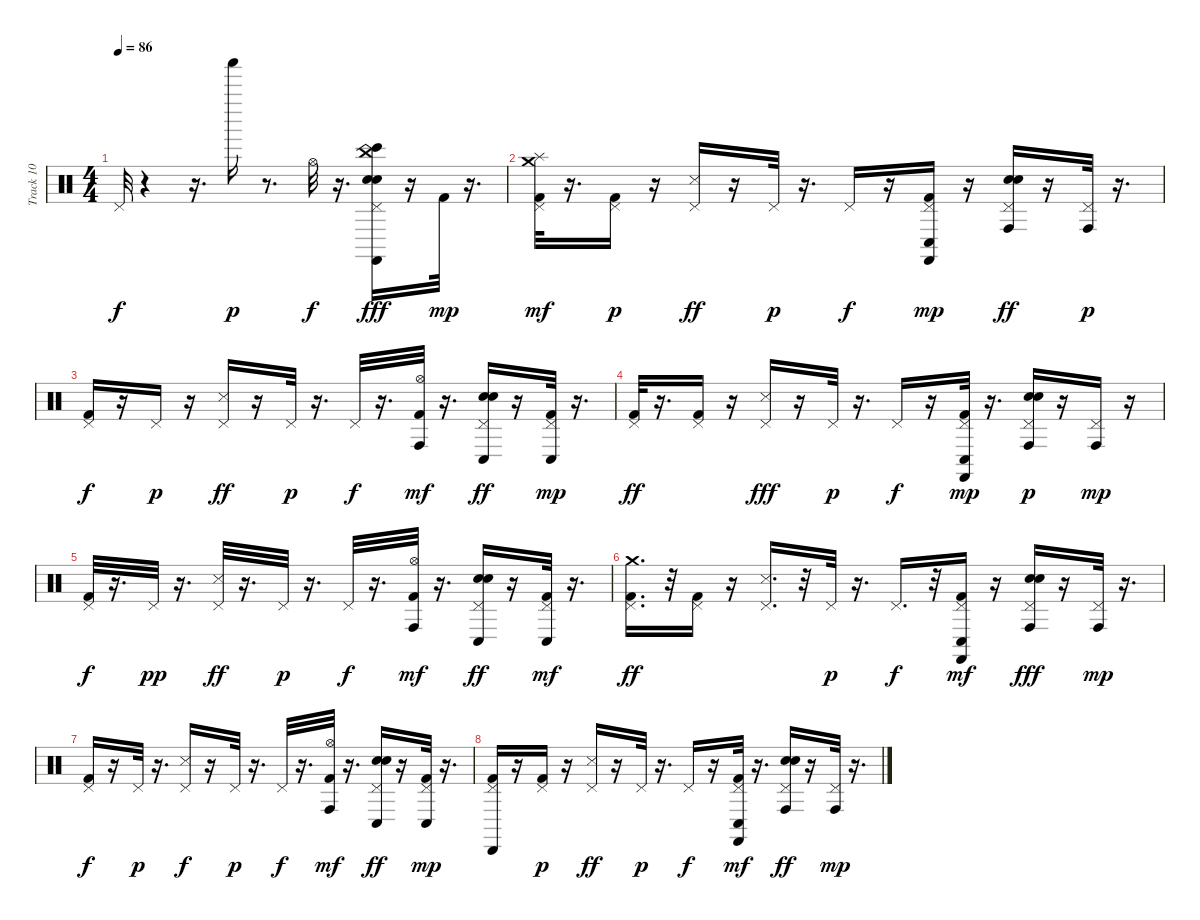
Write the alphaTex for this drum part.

\track ("Track 10" "Track 10") {instrument percussion}
\staff {score}
\articulation defaults
\ts (4 4)
\tempo 86
\clef neutral
\ks c "Pedal Hi-Hat (hit)".32{dy f}
r.4 r.16{d} "Shaker (hit)".16{dy p} r.8{d} "Hi-Hat (open)".32{dy f} r.16{d} ("Pedal Hi-Hat (hit)" "China (hit)" "Hand Clap (hit)" "Castanets (hit)" "Snare (hit)" "Bongo High (hit)").16{dy fff} r.16 "Kick (hit) 2".32{dy mp} r.16{d} |
("Pedal Hi-Hat (hit)" "Crash medium (hit)" "Splash (hit)" "Kick (hit) 2").32{dy mf} r.16{d} ("Pedal Hi-Hat (hit)" "Kick (hit) 2").16{dy p} r.16 ("Pedal Hi-Hat (hit)" "Snare (side stick) 3").16{dy ff} r.16 "Pedal Hi-Hat (hit)".32{dy p} r.16{d} "Pedal Hi-Hat (hit)".16{dy f} r.16 ("Pedal Hi-Hat (hit)" "Castanets (hit)" "Conga low (hit)" "Kick (hit) 2").16{dy mp} r.16 ("Pedal Hi-Hat (hit)" "Snare (hit)" "Conga high (hit)" "Electric Snare (hit)").16{dy ff} r.16 ("Pedal Hi-Hat (hit)" "Conga high (hit)").32{dy p} r.16{d} |
("Pedal Hi-Hat (hit)" "Kick (hit) 2").16{dy f} r.16 "Pedal Hi-Hat (hit)".16{dy p} r.16 ("Pedal Hi-Hat (hit)" "Snare (side stick) 3").16{dy ff} r.16 "Pedal Hi-Hat (hit)".32{dy p} r.16{d} "Pedal Hi-Hat (hit)".32{dy f} r.16{d} ("Hi-Hat (open)" "Conga high (hit)" "Kick (hit) 2").32{dy mf} r.16{d} ("Pedal Hi-Hat (hit)" "Snare (hit)" "Conga low (hit)" "Electric Snare (hit)").16{dy ff} r.16 ("Pedal Hi-Hat (hit)" "Conga low (hit)" "Kick (hit) 2").32{dy mp} r.16{d} |
("Pedal Hi-Hat (hit)" "Kick (hit) 2").32{dy ff} r.16{d} ("Pedal Hi-Hat (hit)" "Kick (hit) 2").16 r.16 ("Pedal Hi-Hat (hit)" "Snare (side stick) 3").16{dy fff} r.16 "Pedal Hi-Hat (hit)".32{dy p} r.16{d} "Pedal Hi-Hat (hit)".16{dy f} r.16 ("Pedal Hi-Hat (hit)" "Castanets (hit)" "Conga low (hit)" "Kick (hit) 2").32{dy mp} r.16{d} ("Pedal Hi-Hat (hit)" "Snare (hit)" "Conga high (hit)" "Electric Snare (hit)").16{dy p} r.16 ("Pedal Hi-Hat (hit)" "Conga high (hit)").16{dy mp} r.16 |
("Pedal Hi-Hat (hit)" "Kick (hit) 2").32{dy f} r.16{d} "Pedal Hi-Hat (hit)".32{dy pp} r.16{d} ("Pedal Hi-Hat (hit)" "Snare (side stick) 3").32{dy ff} r.16{d} "Pedal Hi-Hat (hit)".32{dy p} r.16{d} "Pedal Hi-Hat (hit)".32{dy f} r.16{d} ("Hi-Hat (open)" "Conga high (hit)" "Kick (hit) 2").32{dy mf} r.16{d} ("Pedal Hi-Hat (hit)" "Conga low (hit)" "Snare (hit)" "Electric Snare (hit)").16{dy ff} r.16 ("Pedal Hi-Hat (hit)" "Conga low (hit)" "Kick (hit) 2").32{dy mf} r.16{d} |
("Pedal Hi-Hat (hit)" "Crash medium (hit)" "Kick (hit) 2").16{d dy ff} r.32 ("Pedal Hi-Hat (hit)" "Kick (hit) 2").16 r.16 ("Pedal Hi-Hat (hit)" "Snare (side stick) 3").16{d} r.32 "Pedal Hi-Hat (hit)".32{dy p} r.16{d} "Pedal Hi-Hat (hit)".16{d dy f} r.32 ("Pedal Hi-Hat (hit)" "Conga low (hit)" "Castanets (hit)" "Kick (hit) 2").16{dy mf} r.16 ("Pedal Hi-Hat (hit)" "Conga high (hit)" "Snare (hit)" "Electric Snare (hit)").16{dy fff} r.16 ("Pedal Hi-Hat (hit)" "Conga high (hit)").32{dy mp} r.16{d} |
("Pedal Hi-Hat (hit)" "Kick (hit) 2").16{dy f} r.16 "Pedal Hi-Hat (hit)".32{dy p} r.16{d} ("Pedal Hi-Hat (hit)" "Snare (side stick) 3").16{dy f} r.16 "Pedal Hi-Hat (hit)".32{dy p} r.16{d} "Pedal Hi-Hat (hit)".32{dy f} r.16{d} ("Hi-Hat (open)" "Conga high (hit)" "Kick (hit) 2").32{dy mf} r.16{d} ("Pedal Hi-Hat (hit)" "Conga low (hit)" "Snare (hit)" "Electric Snare (hit)").16{dy ff} r.16 ("Pedal Hi-Hat (hit)" "Conga low (hit)" "Kick (hit) 2").32{dy mp} r.16{d} |
("Pedal Hi-Hat (hit)" "Cabasa (hit)" "Kick (hit) 2").16 r.16 ("Pedal Hi-Hat (hit)" "Kick (hit) 2").16{dy p} r.16 ("Pedal Hi-Hat (hit)" "Snare (side stick) 3").16{dy ff} r.16 "Pedal Hi-Hat (hit)".32{dy p} r.16{d} "Pedal Hi-Hat (hit)".16{dy f} r.16 ("Pedal Hi-Hat (hit)" "Castanets (hit)" "Conga low (hit)" "Kick (hit) 2").32{dy mf} r.16{d} ("Pedal Hi-Hat (hit)" "Snare (hit)" "Conga high (hit)" "Electric Snare (hit)").16{dy ff} r.16 ("Pedal Hi-Hat (hit)" "Conga high (hit)").32{dy mp} r.16{d}
